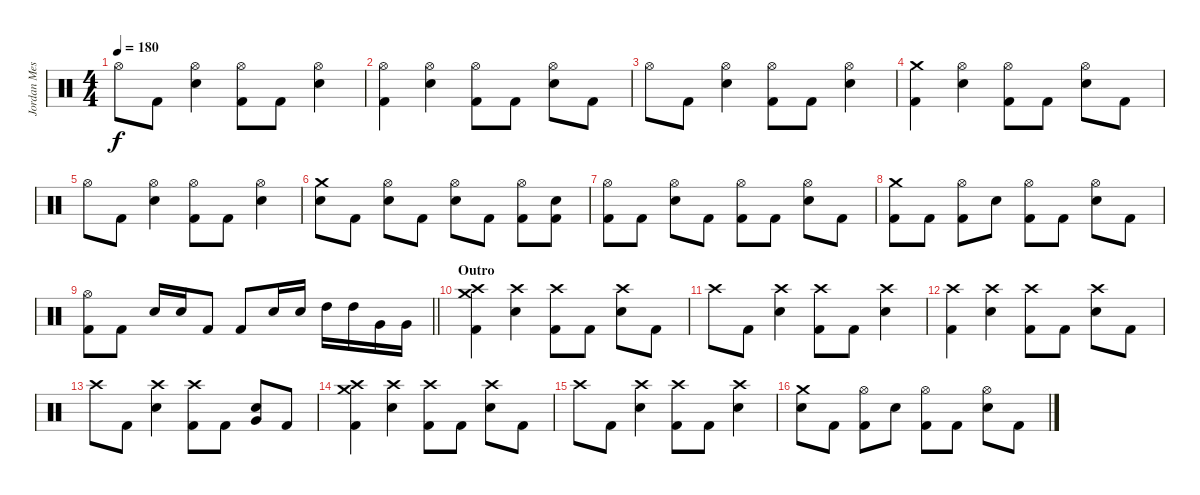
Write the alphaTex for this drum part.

\track ("Jordan Messer " "Jordan Mes") {instrument percussion}
\staff {score}
\articulation defaults
\ts (4 4)
\tempo 180
\clef neutral
\ks c "Hi-Hat (open)".8{dy f} "Kick (hit) 2".8
("Hi-Hat (open)" "Snare (hit) 2").4 ("Hi-Hat (open)" "Kick (hit) 2").8 "Kick (hit) 2".8 ("Hi-Hat (open)" "Snare (hit) 2").4 |
("Hi-Hat (open)" "Kick (hit) 2").4 ("Hi-Hat (open)" "Snare (hit) 2").4 ("Hi-Hat (open)" "Kick (hit) 2").8 "Kick (hit) 2".8 ("Hi-Hat (open)" "Snare (hit) 2").8 "Kick (hit) 2".8 |
"Hi-Hat (open)".8 "Kick (hit) 2".8 ("Hi-Hat (open)" "Snare (hit) 2").4 ("Hi-Hat (open)" "Kick (hit) 2").8 "Kick (hit) 2".8 ("Hi-Hat (open)" "Snare (hit) 2").4 |
("Crash medium (hit)" "Kick (hit) 2").4 ("Hi-Hat (open)" "Snare (hit) 2").4 ("Hi-Hat (open)" "Kick (hit) 2").8 "Kick (hit) 2".8 ("Hi-Hat (open)" "Snare (hit) 2").8 "Kick (hit) 2".8 |
"Hi-Hat (open)".8 "Kick (hit) 2".8 ("Hi-Hat (open)" "Snare (hit) 2").4 ("Hi-Hat (open)" "Kick (hit) 2").8 "Kick (hit) 2".8 ("Hi-Hat (open)" "Snare (hit) 2").4 |
("Crash medium (hit)" "Snare (hit) 2").8 "Kick (hit) 2".8 ("Hi-Hat (open)" "Snare (hit) 2").8 "Kick (hit) 2".8 ("Hi-Hat (open)" "Snare (hit) 2").8 "Kick (hit) 2".8 ("Hi-Hat (open)" "Kick (hit) 2").8 ("Snare (hit) 2" "Kick (hit) 2").8 |
("Hi-Hat (open)" "Kick (hit) 2").8 "Kick (hit) 2".8 ("Hi-Hat (open)" "Snare (hit) 2").8 "Kick (hit) 2".8 ("Hi-Hat (open)" "Kick (hit) 2").8 "Kick (hit) 2".8 ("Hi-Hat (open)" "Snare (hit) 2").8 "Kick (hit) 2".8 |
("Crash medium (hit)" "Kick (hit) 2").8 "Kick (hit) 2".8 ("Hi-Hat (open)" "Kick (hit) 2").8 "Snare (hit) 2".8 ("Hi-Hat (open)" "Kick (hit) 2").8 "Kick (hit) 2".8 ("Hi-Hat (open)" "Snare (hit) 2").8 "Kick (hit) 2".8 |
\barLineRight lightlight
("Hi-Hat (open)" "Kick (hit) 2").8 "Kick (hit) 2".8 "Snare (hit) 2".16 "Snare (hit) 2".16 "Kick (hit) 2".8 "Kick (hit) 2".8 "Snare (hit) 2".16 "Snare (hit) 2".16 "High Tom (hit)".16 "High Tom (hit)".16 "Very Low Tom (hit)".16 "Very Low Tom (hit)".16 |
\section ("" "Outro")
("Crash medium (hit)" "Crash high (hit)" "Kick (hit) 2").4 ("Crash high (hit)" "Snare (hit) 2").4 ("Crash high (hit)" "Kick (hit) 2").8 "Kick (hit) 2".8 ("Crash high (hit)" "Snare (hit) 2").8 "Kick (hit) 2".8 |
"Crash high (hit)".8 "Kick (hit) 2".8 ("Crash high (hit)" "Snare (hit) 2").4 ("Crash high (hit)" "Kick (hit) 2").8 "Kick (hit) 2".8 ("Crash high (hit)" "Snare (hit) 2").4 |
("Crash high (hit)" "Kick (hit) 2").4 ("Crash high (hit)" "Snare (hit) 2").4 ("Crash high (hit)" "Kick (hit) 2").8 "Kick (hit) 2".8 ("Crash high (hit)" "Snare (hit) 2").8 "Kick (hit) 2".8 |
"Crash high (hit)".8 "Kick (hit) 2".8 ("Crash high (hit)" "Snare (hit) 2").4 ("Crash high (hit)" "Kick (hit) 2").8 "Kick (hit) 2".8 ("Snare (hit) 2" "Very Low Tom (hit)").8 "Kick (hit) 2".8 |
("Crash medium (hit)" "Crash high (hit)" "Kick (hit) 2").4 ("Crash high (hit)" "Snare (hit) 2").4 ("Crash high (hit)" "Kick (hit) 2").8 "Kick (hit) 2".8 ("Crash high (hit)" "Snare (hit) 2").8 "Kick (hit) 2".8 |
"Crash high (hit)".8 "Kick (hit) 2".8 ("Crash high (hit)" "Snare (hit) 2").4 ("Crash high (hit)" "Kick (hit) 2").8 "Kick (hit) 2".8 ("Crash high (hit)" "Snare (hit) 2").4 |
("Crash medium (hit)" "Snare (hit) 2").8 "Kick (hit) 2".8 ("Hi-Hat (open)" "Kick (hit) 2").8 "Snare (hit) 2".8 ("Hi-Hat (open)" "Kick (hit) 2").8 "Kick (hit) 2".8 ("Hi-Hat (open)" "Snare (hit) 2").8 "Kick (hit) 2".8
